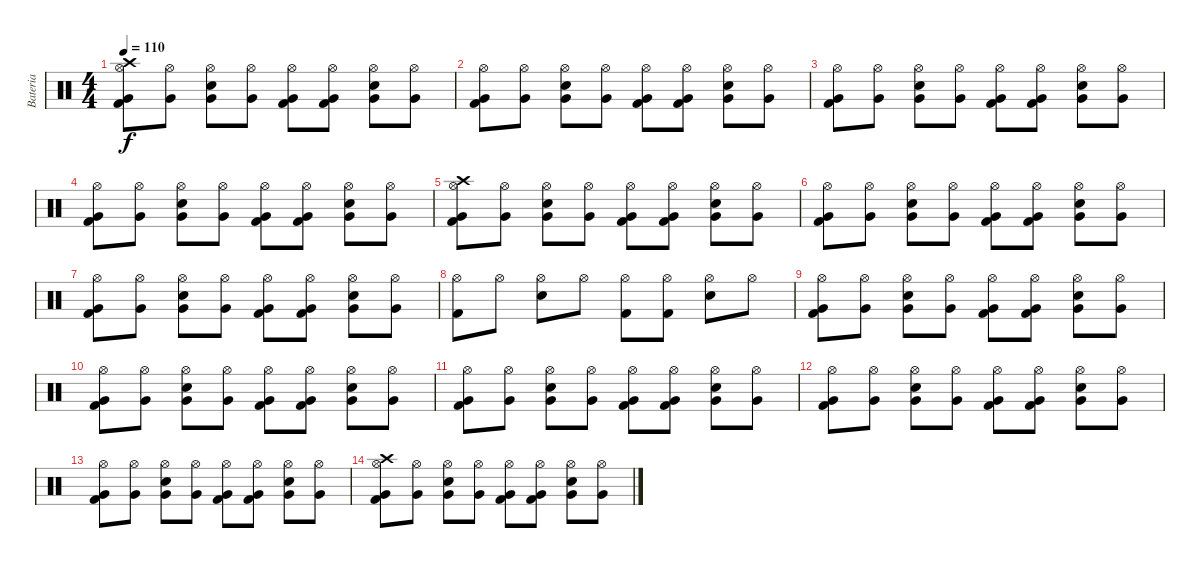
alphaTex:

\track ("Bateria" "Bateria") {instrument percussion}
\staff {score}
\articulation defaults
\ts (4 4)
\tempo 110
\clef neutral
\ks c
("Crash high (hit)" "Hi-Hat (open)" "Very Low Tom (hit)" "Kick (hit) 2").8{dy f} ("Hi-Hat (open)" "Very Low Tom (hit)").8 ("Electric Snare (hit)" "Hi-Hat (open)" "Very Low Tom (hit)").8 ("Hi-Hat (open)" "Very Low Tom (hit)").8 ("Hi-Hat (open)" "Very Low Tom (hit)" "Kick (hit) 2").8 ("Hi-Hat (open)" "Very Low Tom (hit)" "Kick (hit) 2").8 ("Electric Snare (hit)" "Hi-Hat (open)" "Very Low Tom (hit)").8 ("Hi-Hat (open)" "Very Low Tom (hit)").8 |
("Hi-Hat (open)" "Very Low Tom (hit)" "Kick (hit) 2").8 ("Hi-Hat (open)" "Very Low Tom (hit)").8 ("Electric Snare (hit)" "Hi-Hat (open)" "Very Low Tom (hit)").8 ("Hi-Hat (open)" "Very Low Tom (hit)").8 ("Hi-Hat (open)" "Very Low Tom (hit)" "Kick (hit) 2").8 ("Hi-Hat (open)" "Very Low Tom (hit)" "Kick (hit) 2").8 ("Electric Snare (hit)" "Hi-Hat (open)" "Very Low Tom (hit)").8 ("Hi-Hat (open)" "Very Low Tom (hit)").8 |
("Hi-Hat (open)" "Very Low Tom (hit)" "Kick (hit) 2").8 ("Hi-Hat (open)" "Very Low Tom (hit)").8 ("Electric Snare (hit)" "Hi-Hat (open)" "Very Low Tom (hit)").8 ("Hi-Hat (open)" "Very Low Tom (hit)").8 ("Hi-Hat (open)" "Very Low Tom (hit)" "Kick (hit) 2").8 ("Hi-Hat (open)" "Very Low Tom (hit)" "Kick (hit) 2").8 ("Electric Snare (hit)" "Hi-Hat (open)" "Very Low Tom (hit)").8 ("Hi-Hat (open)" "Very Low Tom (hit)").8 |
("Hi-Hat (open)" "Very Low Tom (hit)" "Kick (hit) 2").8 ("Hi-Hat (open)" "Very Low Tom (hit)").8 ("Electric Snare (hit)" "Hi-Hat (open)" "Very Low Tom (hit)").8 ("Hi-Hat (open)" "Very Low Tom (hit)").8 ("Hi-Hat (open)" "Very Low Tom (hit)" "Kick (hit) 2").8 ("Hi-Hat (open)" "Very Low Tom (hit)" "Kick (hit) 2").8 ("Electric Snare (hit)" "Hi-Hat (open)" "Very Low Tom (hit)").8 ("Hi-Hat (open)" "Very Low Tom (hit)").8 |
("Crash high (hit)" "Hi-Hat (open)" "Very Low Tom (hit)" "Kick (hit) 2").8 ("Hi-Hat (open)" "Very Low Tom (hit)").8 ("Electric Snare (hit)" "Hi-Hat (open)" "Very Low Tom (hit)").8 ("Hi-Hat (open)" "Very Low Tom (hit)").8 ("Hi-Hat (open)" "Very Low Tom (hit)" "Kick (hit) 2").8 ("Hi-Hat (open)" "Very Low Tom (hit)" "Kick (hit) 2").8 ("Electric Snare (hit)" "Hi-Hat (open)" "Very Low Tom (hit)").8 ("Hi-Hat (open)" "Very Low Tom (hit)").8 |
("Hi-Hat (open)" "Very Low Tom (hit)" "Kick (hit) 2").8 ("Hi-Hat (open)" "Very Low Tom (hit)").8 ("Electric Snare (hit)" "Hi-Hat (open)" "Very Low Tom (hit)").8 ("Hi-Hat (open)" "Very Low Tom (hit)").8 ("Hi-Hat (open)" "Very Low Tom (hit)" "Kick (hit) 2").8 ("Hi-Hat (open)" "Very Low Tom (hit)" "Kick (hit) 2").8 ("Electric Snare (hit)" "Hi-Hat (open)" "Very Low Tom (hit)").8 ("Hi-Hat (open)" "Very Low Tom (hit)").8 |
("Hi-Hat (open)" "Very Low Tom (hit)" "Kick (hit) 2").8 ("Hi-Hat (open)" "Very Low Tom (hit)").8 ("Electric Snare (hit)" "Hi-Hat (open)" "Very Low Tom (hit)").8 ("Hi-Hat (open)" "Very Low Tom (hit)").8 ("Hi-Hat (open)" "Very Low Tom (hit)" "Kick (hit) 2").8 ("Hi-Hat (open)" "Very Low Tom (hit)" "Kick (hit) 2").8 ("Electric Snare (hit)" "Hi-Hat (open)" "Very Low Tom (hit)").8 ("Hi-Hat (open)" "Very Low Tom (hit)").8 |
("Hi-Hat (open)" "Kick (hit) 2").8 "Hi-Hat (open)".8 ("Electric Snare (hit)" "Hi-Hat (open)").8 "Hi-Hat (open)".8 ("Hi-Hat (open)" "Kick (hit) 2").8 ("Hi-Hat (open)" "Kick (hit) 2").8 ("Electric Snare (hit)" "Hi-Hat (open)").8 "Hi-Hat (open)".8 |
("Hi-Hat (open)" "Very Low Tom (hit)" "Kick (hit) 2").8 ("Hi-Hat (open)" "Very Low Tom (hit)").8 ("Electric Snare (hit)" "Hi-Hat (open)" "Very Low Tom (hit)").8 ("Hi-Hat (open)" "Very Low Tom (hit)").8 ("Hi-Hat (open)" "Very Low Tom (hit)" "Kick (hit) 2").8 ("Hi-Hat (open)" "Very Low Tom (hit)" "Kick (hit) 2").8 ("Electric Snare (hit)" "Hi-Hat (open)" "Very Low Tom (hit)").8 ("Hi-Hat (open)" "Very Low Tom (hit)").8 |
("Hi-Hat (open)" "Very Low Tom (hit)" "Kick (hit) 2").8 ("Hi-Hat (open)" "Very Low Tom (hit)").8 ("Electric Snare (hit)" "Hi-Hat (open)" "Very Low Tom (hit)").8 ("Hi-Hat (open)" "Very Low Tom (hit)").8 ("Hi-Hat (open)" "Very Low Tom (hit)" "Kick (hit) 2").8 ("Hi-Hat (open)" "Very Low Tom (hit)" "Kick (hit) 2").8 ("Electric Snare (hit)" "Hi-Hat (open)" "Very Low Tom (hit)").8 ("Hi-Hat (open)" "Very Low Tom (hit)").8 |
("Hi-Hat (open)" "Very Low Tom (hit)" "Kick (hit) 2").8 ("Hi-Hat (open)" "Very Low Tom (hit)").8 ("Electric Snare (hit)" "Hi-Hat (open)" "Very Low Tom (hit)").8 ("Hi-Hat (open)" "Very Low Tom (hit)").8 ("Hi-Hat (open)" "Very Low Tom (hit)" "Kick (hit) 2").8 ("Hi-Hat (open)" "Very Low Tom (hit)" "Kick (hit) 2").8 ("Electric Snare (hit)" "Hi-Hat (open)" "Very Low Tom (hit)").8 ("Hi-Hat (open)" "Very Low Tom (hit)").8 |
("Hi-Hat (open)" "Very Low Tom (hit)" "Kick (hit) 2").8 ("Hi-Hat (open)" "Very Low Tom (hit)").8 ("Electric Snare (hit)" "Hi-Hat (open)" "Very Low Tom (hit)").8 ("Hi-Hat (open)" "Very Low Tom (hit)").8 ("Hi-Hat (open)" "Very Low Tom (hit)" "Kick (hit) 2").8 ("Hi-Hat (open)" "Very Low Tom (hit)" "Kick (hit) 2").8 ("Electric Snare (hit)" "Hi-Hat (open)" "Very Low Tom (hit)").8 ("Hi-Hat (open)" "Very Low Tom (hit)").8 |
("Hi-Hat (open)" "Very Low Tom (hit)" "Kick (hit) 2").8 ("Hi-Hat (open)" "Very Low Tom (hit)").8 ("Electric Snare (hit)" "Hi-Hat (open)" "Very Low Tom (hit)").8 ("Hi-Hat (open)" "Very Low Tom (hit)").8 ("Hi-Hat (open)" "Very Low Tom (hit)" "Kick (hit) 2").8 ("Hi-Hat (open)" "Very Low Tom (hit)" "Kick (hit) 2").8 ("Electric Snare (hit)" "Hi-Hat (open)" "Very Low Tom (hit)").8 ("Hi-Hat (open)" "Very Low Tom (hit)").8 |
("Crash high (hit)" "Hi-Hat (open)" "Very Low Tom (hit)" "Kick (hit) 2").8 ("Hi-Hat (open)" "Very Low Tom (hit)").8 ("Electric Snare (hit)" "Hi-Hat (open)" "Very Low Tom (hit)").8 ("Hi-Hat (open)" "Very Low Tom (hit)").8 ("Hi-Hat (open)" "Very Low Tom (hit)" "Kick (hit) 2").8 ("Hi-Hat (open)" "Very Low Tom (hit)" "Kick (hit) 2").8 ("Electric Snare (hit)" "Hi-Hat (open)" "Very Low Tom (hit)").8 ("Hi-Hat (open)" "Very Low Tom (hit)").8
